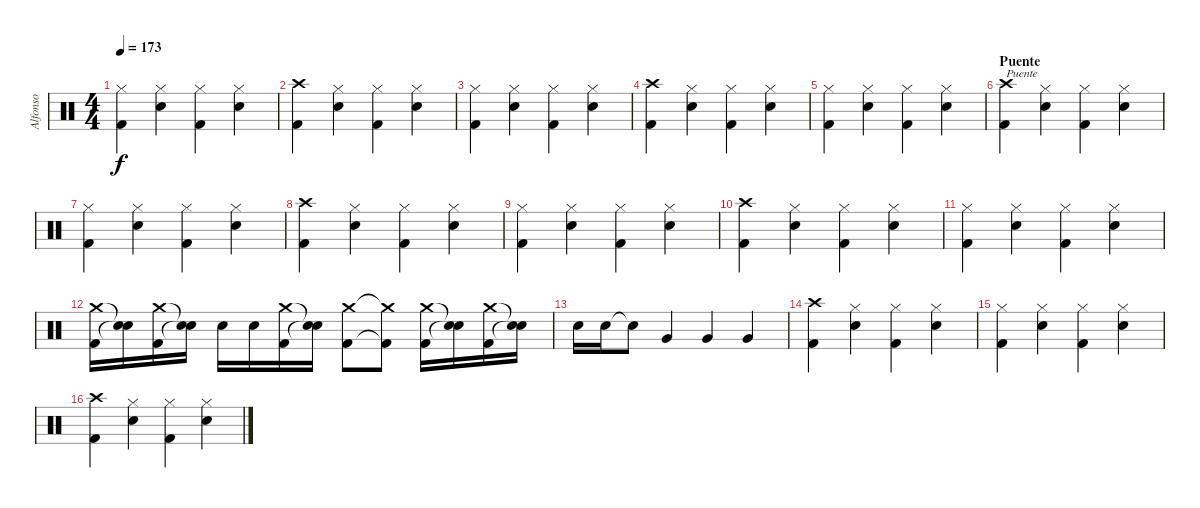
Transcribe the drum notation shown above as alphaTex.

\track ("Alfonso" "Alfonso") {instrument percussion}
\staff {score}
\articulation defaults
\ts (4 4)
\tempo 173
\clef neutral
\ks c
("Kick (hit) 2" "Hi-Hat (closed)").4{dy f} ("Electric Snare (hit)" "Hi-Hat (closed)").4 ("Kick (hit) 2" "Hi-Hat (closed)").4 ("Electric Snare (hit)" "Hi-Hat (closed)").4 |
("Kick (hit) 2" "Crash high (hit)").4 ("Electric Snare (hit)" "Hi-Hat (closed)").4 ("Kick (hit) 2" "Hi-Hat (closed)").4 ("Electric Snare (hit)" "Hi-Hat (closed)").4 |
("Kick (hit) 2" "Hi-Hat (closed)").4 ("Electric Snare (hit)" "Hi-Hat (closed)").4 ("Kick (hit) 2" "Hi-Hat (closed)").4 ("Electric Snare (hit)" "Hi-Hat (closed)").4 |
("Kick (hit) 2" "Crash high (hit)").4 ("Electric Snare (hit)" "Hi-Hat (closed)").4 ("Kick (hit) 2" "Hi-Hat (closed)").4 ("Electric Snare (hit)" "Hi-Hat (closed)").4 |
("Kick (hit) 2" "Hi-Hat (closed)").4 ("Electric Snare (hit)" "Hi-Hat (closed)").4 ("Kick (hit) 2" "Hi-Hat (closed)").4 ("Electric Snare (hit)" "Hi-Hat (closed)").4 |
\section ("" "Puente")
("Kick (hit) 2" "Crash high (hit)").4{txt "Puente"} ("Electric Snare (hit)" "Hi-Hat (closed)").4 ("Kick (hit) 2" "Hi-Hat (closed)").4 ("Electric Snare (hit)" "Hi-Hat (closed)").4 |
("Kick (hit) 2" "Hi-Hat (closed)").4 ("Electric Snare (hit)" "Hi-Hat (closed)").4 ("Kick (hit) 2" "Hi-Hat (closed)").4 ("Electric Snare (hit)" "Hi-Hat (closed)").4 |
("Kick (hit) 2" "Crash high (hit)").4 ("Electric Snare (hit)" "Hi-Hat (closed)").4 ("Kick (hit) 2" "Hi-Hat (closed)").4 ("Electric Snare (hit)" "Hi-Hat (closed)").4 |
("Kick (hit) 2" "Hi-Hat (closed)").4 ("Electric Snare (hit)" "Hi-Hat (closed)").4 ("Kick (hit) 2" "Hi-Hat (closed)").4 ("Electric Snare (hit)" "Hi-Hat (closed)").4 |
("Kick (hit) 2" "Crash high (hit)").4 ("Electric Snare (hit)" "Hi-Hat (closed)").4 ("Kick (hit) 2" "Hi-Hat (closed)").4 ("Electric Snare (hit)" "Hi-Hat (closed)").4 |
("Kick (hit) 2" "Hi-Hat (closed)").4 ("Electric Snare (hit)" "Hi-Hat (closed)").4 ("Kick (hit) 2" "Hi-Hat (closed)").4 ("Electric Snare (hit)" "Hi-Hat (closed)").4 |
("Crash medium (hit)" "Kick (hit) 2").16 ("Snare (hit)"{t} "Snare (hit)"{t}).16 ("Crash medium (hit)" "Kick (hit) 2").16 ("Snare (hit)"{t} "Snare (hit)"{t}).16 "Electric Snare (hit)".16 "Electric Snare (hit)".16 ("Crash medium (hit)" "Kick (hit) 2").16 ("Snare (hit)"{t} "Snare (hit)"{t}).16 ("Crash medium (hit)" "Kick (hit) 2").8 ("Crash medium (hit)"{t} "Kick (hit) 2"{t}).8 ("Crash medium (hit)" "Kick (hit) 2").16 ("Snare (hit)"{t} "Snare (hit)"{t}).16 ("Crash medium (hit)" "Kick (hit) 2").16 ("Snare (hit)"{t} "Snare (hit)"{t}).16 |
"Electric Snare (hit)".16 "Electric Snare (hit)".16 "Snare (hit)"{t}.8 "Very Low Tom (hit)".4 "Very Low Tom (hit)".4 "Very Low Tom (hit)".4 |
("Kick (hit) 2" "Crash high (hit)").4 ("Electric Snare (hit)" "Hi-Hat (closed)").4 ("Kick (hit) 2" "Hi-Hat (closed)").4 ("Electric Snare (hit)" "Hi-Hat (closed)").4 |
("Kick (hit) 2" "Hi-Hat (closed)").4 ("Electric Snare (hit)" "Hi-Hat (closed)").4 ("Kick (hit) 2" "Hi-Hat (closed)").4 ("Electric Snare (hit)" "Hi-Hat (closed)").4 |
("Kick (hit) 2" "Crash high (hit)").4 ("Electric Snare (hit)" "Hi-Hat (closed)").4 ("Kick (hit) 2" "Hi-Hat (closed)").4 ("Electric Snare (hit)" "Hi-Hat (closed)").4
